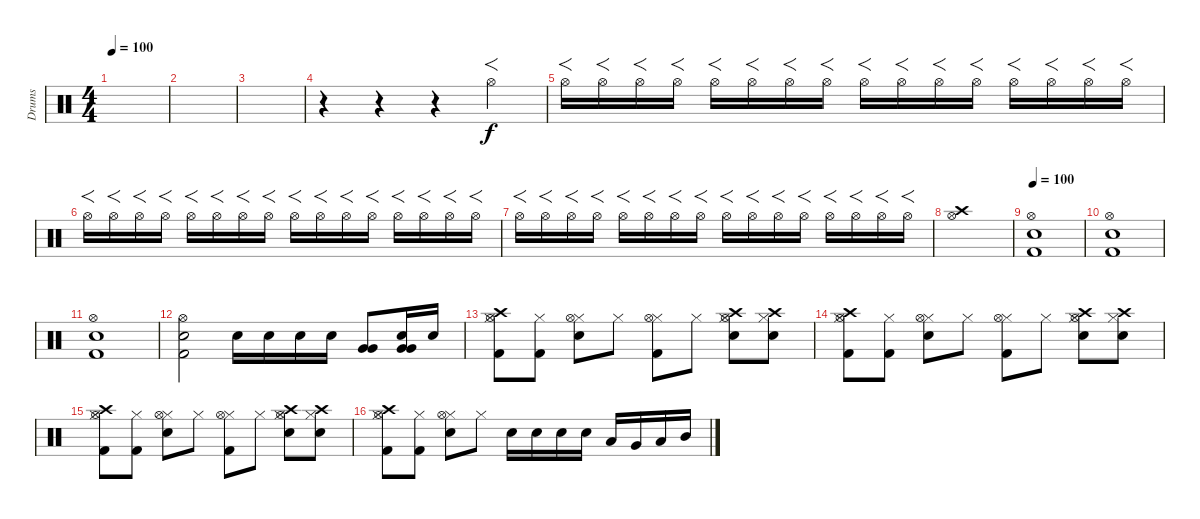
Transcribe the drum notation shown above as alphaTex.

\track ("Drums" "Drums") {instrument percussion}
\staff {score}
\articulation defaults
\ts (4 4)
\tempo 100
\tempo 120
\tempo 100
\clef neutral
\ks c
|
|
|
r.4 r.4 r.4 "Hi-Hat (open)".4{f} |
"Hi-Hat (open)".16{f volume 6} "Hi-Hat (open)".16{f} "Hi-Hat (open)".16{f} "Hi-Hat (open)".16{f} "Hi-Hat (open)".16{f} "Hi-Hat (open)".16{f} "Hi-Hat (open)".16{f} "Hi-Hat (open)".16{f} "Hi-Hat (open)".16{f} "Hi-Hat (open)".16{f} "Hi-Hat (open)".16{f} "Hi-Hat (open)".16{f} "Hi-Hat (open)".16{f} "Hi-Hat (open)".16{f} "Hi-Hat (open)".16{f} "Hi-Hat (open)".16{f} |
"Hi-Hat (open)".16{f} "Hi-Hat (open)".16{f} "Hi-Hat (open)".16{f} "Hi-Hat (open)".16{f} "Hi-Hat (open)".16{f} "Hi-Hat (open)".16{f} "Hi-Hat (open)".16{f} "Hi-Hat (open)".16{f} "Hi-Hat (open)".16{f} "Hi-Hat (open)".16{f} "Hi-Hat (open)".16{f} "Hi-Hat (open)".16{f} "Hi-Hat (open)".16{f} "Hi-Hat (open)".16{f} "Hi-Hat (open)".16{f} "Hi-Hat (open)".16{f} |
"Hi-Hat (open)".16{f} "Hi-Hat (open)".16{f} "Hi-Hat (open)".16{f} "Hi-Hat (open)".16{f} "Hi-Hat (open)".16{f} "Hi-Hat (open)".16{f} "Hi-Hat (open)".16{f} "Hi-Hat (open)".16{f} "Hi-Hat (open)".16{f} "Hi-Hat (open)".16{f} "Hi-Hat (open)".16{f} "Hi-Hat (open)".16{f} "Hi-Hat (open)".16{f} "Hi-Hat (open)".16{f} "Hi-Hat (open)".16{f} "Hi-Hat (open)".16{f} |
("Crash high (hit)" "Hi-Hat (open)").1{volume 13} |
\tempo 100
("Hi-Hat (open)" "Kick (hit) 2" "Electric Snare (hit)").1 |
("Hi-Hat (open)" "Kick (hit) 2" "Electric Snare (hit)").1 |
("Hi-Hat (open)" "Kick (hit) 2" "Electric Snare (hit)").1 |
("Hi-Hat (open)" "Kick (hit) 2" "Electric Snare (hit)").2 "Electric Snare (hit)".16 "Electric Snare (hit)".16 "Electric Snare (hit)".16 "Electric Snare (hit)".16 ("Very Low Tom (hit)" "Very Low Tom (hit)").8 ("Electric Snare (hit)" "Very Low Tom (hit)" "Very Low Tom (hit)").16 "Electric Snare (hit)".16 |
("Crash high (hit)" "Kick (hit) 2" "Hi-Hat (closed)" "Hi-Hat (open)").8 ("Kick (hit) 2" "Hi-Hat (closed)").8 ("Electric Snare (hit)" "Hi-Hat (closed)" "Hi-Hat (open)").8 "Hi-Hat (closed)".8 ("Kick (hit) 2" "Hi-Hat (closed)" "Hi-Hat (open)").8 "Hi-Hat (closed)".8 ("Crash high (hit)" "Electric Snare (hit)" "Hi-Hat (closed)" "Hi-Hat (open)").8 ("Crash high (hit)" "Electric Snare (hit)" "Hi-Hat (closed)").8 |
("Crash high (hit)" "Kick (hit) 2" "Hi-Hat (closed)" "Hi-Hat (open)").8 ("Kick (hit) 2" "Hi-Hat (closed)").8 ("Electric Snare (hit)" "Hi-Hat (closed)" "Hi-Hat (open)").8 "Hi-Hat (closed)".8 ("Kick (hit) 2" "Hi-Hat (closed)" "Hi-Hat (open)").8 "Hi-Hat (closed)".8 ("Crash high (hit)" "Electric Snare (hit)" "Hi-Hat (closed)" "Hi-Hat (open)").8 ("Crash high (hit)" "Electric Snare (hit)" "Hi-Hat (closed)").8 |
("Crash high (hit)" "Kick (hit) 2" "Hi-Hat (closed)" "Hi-Hat (open)").8 ("Kick (hit) 2" "Hi-Hat (closed)").8 ("Electric Snare (hit)" "Hi-Hat (closed)" "Hi-Hat (open)").8 "Hi-Hat (closed)".8 ("Kick (hit) 2" "Hi-Hat (closed)" "Hi-Hat (open)").8 "Hi-Hat (closed)".8 ("Crash high (hit)" "Electric Snare (hit)" "Hi-Hat (closed)" "Hi-Hat (open)").8 ("Crash high (hit)" "Electric Snare (hit)" "Hi-Hat (closed)").8 |
("Crash high (hit)" "Kick (hit) 2" "Hi-Hat (closed)" "Hi-Hat (open)").8 ("Kick (hit) 2" "Hi-Hat (closed)").8 ("Electric Snare (hit)" "Hi-Hat (closed)" "Hi-Hat (open)").8 "Hi-Hat (closed)".8 "Electric Snare (hit)".16 "Electric Snare (hit)".16 "Electric Snare (hit)".16 "Electric Snare (hit)".16 "Low Floor Tom (hit)".16 "Very Low Tom (hit)".16 "Low Tom (hit)".16 "Mid Tom (hit)".16
